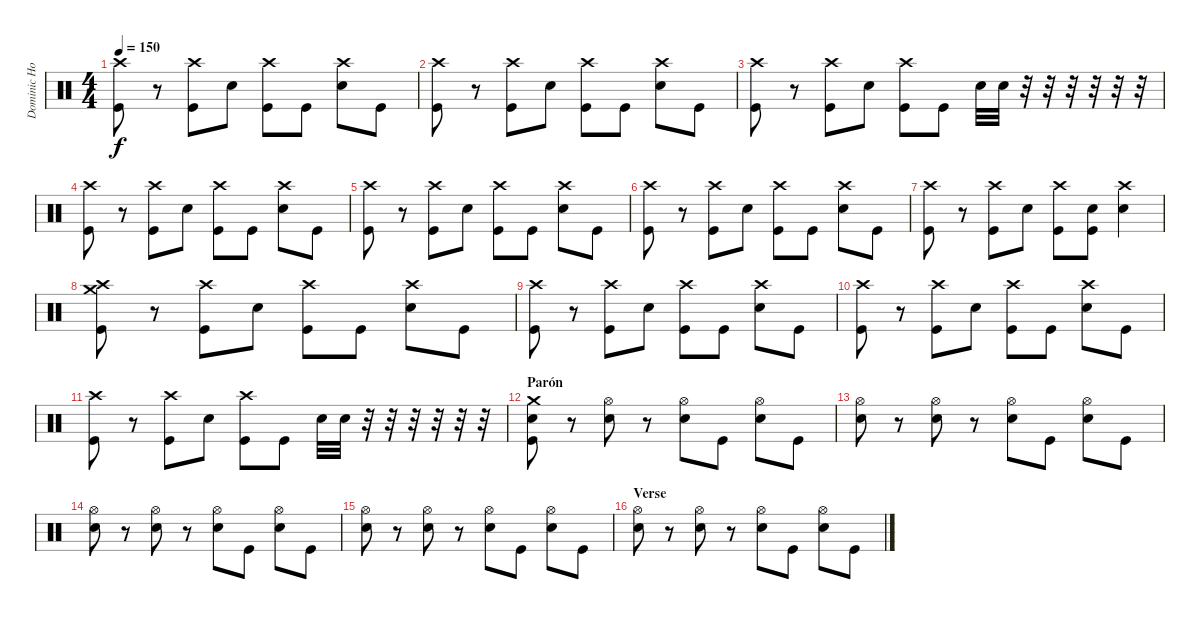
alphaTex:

\track ("Dominic Howard" "Dominic Ho") {instrument percussion}
\staff {score}
\articulation defaults
\ts (4 4)
\tempo 150
\clef neutral
\ks c
("Crash high (hit)" "Kick (hit)").8{dy f} r.8 ("Crash high (hit)" "Kick (hit)").8 "Snare (hit) 2".8 ("Crash high (hit)" "Kick (hit)").8 "Kick (hit)".8 ("Crash high (hit)" "Snare (hit) 2").8 "Kick (hit)".8 |
("Crash high (hit)" "Kick (hit)").8 r.8 ("Crash high (hit)" "Kick (hit)").8 "Snare (hit) 2".8 ("Crash high (hit)" "Kick (hit)").8 "Kick (hit)".8 ("Crash high (hit)" "Snare (hit) 2").8 "Kick (hit)".8 |
("Crash high (hit)" "Kick (hit)").8 r.8 ("Crash high (hit)" "Kick (hit)").8 "Snare (hit) 2".8 ("Crash high (hit)" "Kick (hit)").8 "Kick (hit)".8 "Snare (hit) 2".32 "Snare (hit) 2".32 r.32 r.32 r.32 r.32 r.32 r.32 |
("Crash high (hit)" "Kick (hit)").8 r.8 ("Crash high (hit)" "Kick (hit)").8 "Snare (hit) 2".8 ("Crash high (hit)" "Kick (hit)").8 "Kick (hit)".8 ("Crash high (hit)" "Snare (hit) 2").8 "Kick (hit)".8 |
("Crash high (hit)" "Kick (hit)").8 r.8 ("Crash high (hit)" "Kick (hit)").8 "Snare (hit) 2".8 ("Crash high (hit)" "Kick (hit)").8 "Kick (hit)".8 ("Crash high (hit)" "Snare (hit) 2").8 "Kick (hit)".8 |
("Crash high (hit)" "Kick (hit)").8 r.8 ("Crash high (hit)" "Kick (hit)").8 "Snare (hit) 2".8 ("Crash high (hit)" "Kick (hit)").8 "Kick (hit)".8 ("Crash high (hit)" "Snare (hit) 2").8 "Kick (hit)".8 |
("Crash high (hit)" "Kick (hit)").8 r.8 ("Crash high (hit)" "Kick (hit)").8 "Snare (hit) 2".8 ("Crash high (hit)" "Kick (hit)").8 ("Snare (hit) 2" "Kick (hit)").8 ("Crash high (hit)" "Snare (hit) 2").4 |
("Crash high (hit)" "Crash medium (hit)" "Kick (hit)").8 r.8 ("Crash high (hit)" "Kick (hit)").8 "Snare (hit) 2".8 ("Crash high (hit)" "Kick (hit)").8 "Kick (hit)".8 ("Crash high (hit)" "Snare (hit) 2").8 "Kick (hit)".8 |
("Crash high (hit)" "Kick (hit)").8 r.8 ("Crash high (hit)" "Kick (hit)").8 "Snare (hit) 2".8 ("Crash high (hit)" "Kick (hit)").8 "Kick (hit)".8 ("Crash high (hit)" "Snare (hit) 2").8 "Kick (hit)".8 |
("Crash high (hit)" "Kick (hit)").8 r.8 ("Crash high (hit)" "Kick (hit)").8 "Snare (hit) 2".8 ("Crash high (hit)" "Kick (hit)").8 "Kick (hit)".8 ("Crash high (hit)" "Snare (hit) 2").8 "Kick (hit)".8 |
("Crash high (hit)" "Kick (hit)").8 r.8 ("Crash high (hit)" "Kick (hit)").8 "Snare (hit) 2".8 ("Crash high (hit)" "Kick (hit)").8 "Kick (hit)".8 "Snare (hit) 2".32 "Snare (hit) 2".32 r.32 r.32 r.32 r.32 r.32 r.32 |
\section ("" "Parón")
("Crash medium (hit)" "Snare (hit) 2" "Kick (hit)").8 r.8 ("Hi-Hat (open)" "Snare (hit) 2").8 r.8 ("Hi-Hat (open)" "Snare (hit) 2").8 "Kick (hit)".8 ("Hi-Hat (open)" "Snare (hit) 2").8 "Kick (hit)".8 |
("Hi-Hat (open)" "Snare (hit) 2").8 r.8 ("Hi-Hat (open)" "Snare (hit) 2").8 r.8 ("Hi-Hat (open)" "Snare (hit) 2").8 "Kick (hit)".8 ("Hi-Hat (open)" "Snare (hit) 2").8 "Kick (hit)".8 |
("Hi-Hat (open)" "Snare (hit) 2").8 r.8 ("Hi-Hat (open)" "Snare (hit) 2").8 r.8 ("Hi-Hat (open)" "Snare (hit) 2").8 "Kick (hit)".8 ("Hi-Hat (open)" "Snare (hit) 2").8 "Kick (hit)".8 |
("Hi-Hat (open)" "Snare (hit) 2").8 r.8 ("Hi-Hat (open)" "Snare (hit) 2").8 r.8 ("Hi-Hat (open)" "Snare (hit) 2").8 "Kick (hit)".8 ("Hi-Hat (open)" "Snare (hit) 2").8 "Kick (hit)".8 |
\section ("" "Verse")
("Hi-Hat (open)" "Snare (hit) 2").8 r.8 ("Hi-Hat (open)" "Snare (hit) 2").8 r.8 ("Hi-Hat (open)" "Snare (hit) 2").8 "Kick (hit)".8 ("Hi-Hat (open)" "Snare (hit) 2").8 "Kick (hit)".8
